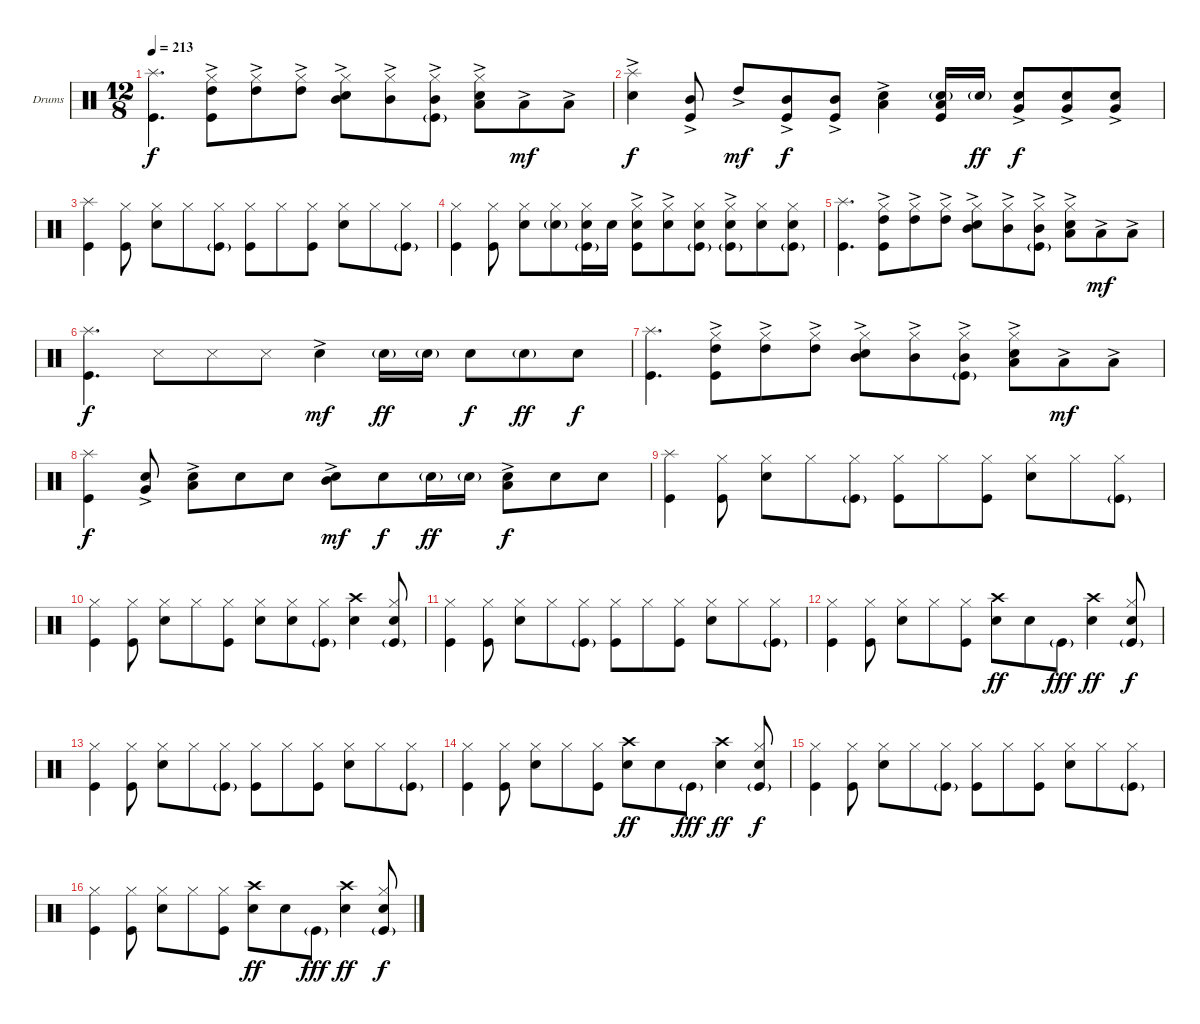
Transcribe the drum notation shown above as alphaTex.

\bracketExtendMode groupsimilarinstruments
\firstSystemTrackNameOrientation horizontal
\otherSystemsTrackNameOrientation horizontal
\track ("Drumkit" "Drums") {instrument percussion}
\staff {score}
\articulation defaults
\ts (12 8)
\tempo 213
\clef neutral
\ks c
("Kick (hit)" "Splash (hit)").4{d dy f} ("Hi-Hat (closed)" "Kick (hit)" "High Tom (hit)"{ac}).8 ("Hi-Hat (closed)" "High Tom (hit)"{ac}).8 ("Hi-Hat (closed)" "High Tom (hit)"{ac}).8 ("Hi-Hat (closed)" "Snare (hit) 2" "Mid Tom (hit)"{ac}).8 ("Hi-Hat (closed)" "Mid Tom (hit)"{ac}).8 ("Hi-Hat (closed)" "Mid Tom (hit)"{ac} "Kick (hit)"{g}).8 ("Low Tom (hit)"{ac} "Snare (hit) 2" "Hi-Hat (closed)").8 "Low Tom (hit)"{ac}.8{dy mf} "Low Tom (hit)"{ac}.8 |
("Snare (hit) 2"{ac} "Splash (hit)").4{dy f} ("Kick (hit)" "Mid Tom (hit)"{ac}).8 "High Tom (hit)"{ac}.8{dy mf} ("Mid Tom (hit)"{ac} "Kick (hit)").8{dy f} ("Mid Tom (hit)"{ac} "Kick (hit)").8 ("Low Tom (hit)" "Snare (hit) 2"{ac}).4 ("Low Tom (hit)" "Snare (hit) 2"{g} "Kick (hit)").16 "Snare (hit) 2"{g}.16{dy ff} ("Very Low Tom (hit)"{ac} "Snare (hit) 2").8{dy f} ("Very Low Tom (hit)"{ac} "Snare (hit) 2").8 ("Very Low Tom (hit)"{ac} "Snare (hit) 2").8 |
("Kick (hit)" "Splash (hit)").4 ("Kick (hit)" "Hi-Hat (closed)").8 ("Snare (hit) 2" "Hi-Hat (closed)").8 "Hi-Hat (closed)".8 ("Hi-Hat (closed)" "Kick (hit)"{g}).8 ("Kick (hit)" "Hi-Hat (closed)").8 "Hi-Hat (closed)".8 ("Hi-Hat (closed)" "Kick (hit)").8 ("Snare (hit) 2" "Hi-Hat (closed)").8 "Hi-Hat (closed)".8 ("Hi-Hat (closed)" "Kick (hit)"{g}).8 |
("Kick (hit)" "Hi-Hat (closed)").4 ("Kick (hit)" "Hi-Hat (closed)").8 ("Snare (hit) 2" "Hi-Hat (closed)").8 ("Hi-Hat (closed)" "Snare (hit) 2"{g}).8 ("Hi-Hat (closed)" "Kick (hit)"{g} "Snare (hit) 2").16 "Snare (hit) 2".16 ("Snare (hit) 2"{ac} "Kick (hit)" "Hi-Hat (closed)").8 ("Snare (hit) 2"{ac} "Hi-Hat (closed)").8 ("Snare (hit) 2" "Kick (hit)"{g} "Hi-Hat (closed)").8 ("Snare (hit) 2"{ac} "Kick (hit)"{g} "Hi-Hat (closed)").8 ("Snare (hit) 2" "Hi-Hat (closed)").8 ("Snare (hit) 2" "Kick (hit)"{g} "Hi-Hat (closed)").8 |
("Kick (hit)" "Splash (hit)").4{d} ("Hi-Hat (closed)" "Kick (hit)" "High Tom (hit)"{ac}).8 ("Hi-Hat (closed)" "High Tom (hit)"{ac}).8 ("Hi-Hat (closed)" "High Tom (hit)"{ac}).8 ("Hi-Hat (closed)" "Snare (hit) 2" "Mid Tom (hit)"{ac}).8 ("Hi-Hat (closed)" "Mid Tom (hit)"{ac}).8 ("Hi-Hat (closed)" "Mid Tom (hit)"{ac} "Kick (hit)"{g}).8 ("Low Tom (hit)"{ac} "Snare (hit) 2" "Hi-Hat (closed)").8 "Low Tom (hit)"{ac}.8{dy mf} "Low Tom (hit)"{ac}.8 |
("Kick (hit)" "Splash (hit)").4{d dy f} "Snare (side stick) 3".8 "Snare (side stick) 3".8 "Snare (side stick) 3".8 "Snare (hit) 2"{ac}.4{dy mf} "Snare (hit) 2"{g}.16{dy ff} "Snare (hit) 2"{g}.16 "Snare (hit) 2".8{dy f} "Snare (hit) 2"{g}.8{dy ff} "Snare (hit) 2".8{dy f} |
("Kick (hit)" "Splash (hit)").4{d} ("Hi-Hat (closed)" "Kick (hit)" "High Tom (hit)"{ac}).8 ("Hi-Hat (closed)" "High Tom (hit)"{ac}).8 ("Hi-Hat (closed)" "High Tom (hit)"{ac}).8 ("Hi-Hat (closed)" "Snare (hit) 2" "Mid Tom (hit)"{ac}).8 ("Hi-Hat (closed)" "Mid Tom (hit)"{ac}).8 ("Hi-Hat (closed)" "Mid Tom (hit)"{ac} "Kick (hit)"{g}).8 ("Low Tom (hit)"{ac} "Snare (hit) 2" "Hi-Hat (closed)").8 "Low Tom (hit)"{ac}.8{dy mf} "Low Tom (hit)"{ac}.8 |
("Kick (hit)" "Splash (hit)").4{dy f} ("Snare (hit) 2" "Very Low Tom (hit)"{ac}).8 ("Snare (hit) 2" "Low Tom (hit)"{ac}).8 "Snare (hit) 2".8 "Snare (hit) 2".8 ("Snare (hit) 2"{ac} "Mid Tom (hit)"{ac}).8{dy mf} "Snare (hit) 2".8{dy f} "Snare (hit) 2"{g}.16{dy ff} "Snare (hit) 2"{g}.16 ("Snare (hit) 2"{ac} "Low Tom (hit)").8{dy f} "Snare (hit) 2".8 "Snare (hit) 2".8 |
("Kick (hit)" "Splash (hit)").4 ("Kick (hit)" "Hi-Hat (closed)").8 ("Snare (hit) 2" "Hi-Hat (closed)").8 "Hi-Hat (closed)".8 ("Hi-Hat (closed)" "Kick (hit)"{g}).8 ("Kick (hit)" "Hi-Hat (closed)").8 "Hi-Hat (closed)".8 ("Hi-Hat (closed)" "Kick (hit)").8 ("Snare (hit) 2" "Hi-Hat (closed)").8 "Hi-Hat (closed)".8 ("Hi-Hat (closed)" "Kick (hit)"{g}).8 |
("Kick (hit)" "Hi-Hat (closed)").4 ("Kick (hit)" "Hi-Hat (closed)").8 ("Snare (hit) 2" "Hi-Hat (closed)").8 "Hi-Hat (closed)".8 ("Hi-Hat (closed)" "Kick (hit)").8 ("Snare (hit) 2" "Hi-Hat (closed)").8 ("Snare (hit) 2" "Hi-Hat (closed)").8 ("Kick (hit)"{g} "Hi-Hat (closed)").8 ("Snare (hit) 2" "Crash high (hit)").4 ("Snare (hit) 2" "Kick (hit)"{g} "Hi-Hat (closed)").8 |
("Kick (hit)" "Hi-Hat (closed)").4 ("Kick (hit)" "Hi-Hat (closed)").8 ("Snare (hit) 2" "Hi-Hat (closed)").8 "Hi-Hat (closed)".8 ("Hi-Hat (closed)" "Kick (hit)"{g}).8 ("Kick (hit)" "Hi-Hat (closed)").8 "Hi-Hat (closed)".8 ("Hi-Hat (closed)" "Kick (hit)").8 ("Snare (hit) 2" "Hi-Hat (closed)").8 "Hi-Hat (closed)".8 ("Hi-Hat (closed)" "Kick (hit)"{g}).8 |
("Kick (hit)" "Hi-Hat (closed)").4 ("Kick (hit)" "Hi-Hat (closed)").8 ("Snare (hit) 2" "Hi-Hat (closed)").8 "Hi-Hat (closed)".8 ("Hi-Hat (closed)" "Kick (hit)").8 ("Snare (hit) 2" "Crash high (hit)").8{dy ff} "Snare (hit) 2".8 "Kick (hit)"{g}.8{dy fff} ("Snare (hit) 2" "Crash high (hit)").4{dy ff} ("Snare (hit) 2" "Kick (hit)"{g} "Hi-Hat (closed)").8{dy f} |
("Kick (hit)" "Hi-Hat (closed)").4 ("Kick (hit)" "Hi-Hat (closed)").8 ("Snare (hit) 2" "Hi-Hat (closed)").8 "Hi-Hat (closed)".8 ("Hi-Hat (closed)" "Kick (hit)"{g}).8 ("Kick (hit)" "Hi-Hat (closed)").8 "Hi-Hat (closed)".8 ("Hi-Hat (closed)" "Kick (hit)").8 ("Snare (hit) 2" "Hi-Hat (closed)").8 "Hi-Hat (closed)".8 ("Hi-Hat (closed)" "Kick (hit)"{g}).8 |
("Kick (hit)" "Hi-Hat (closed)").4 ("Kick (hit)" "Hi-Hat (closed)").8 ("Snare (hit) 2" "Hi-Hat (closed)").8 "Hi-Hat (closed)".8 ("Hi-Hat (closed)" "Kick (hit)").8 ("Snare (hit) 2" "Crash high (hit)").8{dy ff} "Snare (hit) 2".8 "Kick (hit)"{g}.8{dy fff} ("Snare (hit) 2" "Crash high (hit)").4{dy ff} ("Snare (hit) 2" "Kick (hit)"{g} "Hi-Hat (closed)").8{dy f} |
("Kick (hit)" "Hi-Hat (closed)").4 ("Kick (hit)" "Hi-Hat (closed)").8 ("Snare (hit) 2" "Hi-Hat (closed)").8 "Hi-Hat (closed)".8 ("Hi-Hat (closed)" "Kick (hit)"{g}).8 ("Kick (hit)" "Hi-Hat (closed)").8 "Hi-Hat (closed)".8 ("Hi-Hat (closed)" "Kick (hit)").8 ("Snare (hit) 2" "Hi-Hat (closed)").8 "Hi-Hat (closed)".8 ("Hi-Hat (closed)" "Kick (hit)"{g}).8 |
("Kick (hit)" "Hi-Hat (closed)").4 ("Kick (hit)" "Hi-Hat (closed)").8 ("Snare (hit) 2" "Hi-Hat (closed)").8 "Hi-Hat (closed)".8 ("Hi-Hat (closed)" "Kick (hit)").8 ("Snare (hit) 2" "Crash high (hit)").8{dy ff} "Snare (hit) 2".8 "Kick (hit)"{g}.8{dy fff} ("Snare (hit) 2" "Crash high (hit)").4{dy ff} ("Snare (hit) 2" "Kick (hit)"{g} "Hi-Hat (closed)").8{dy f}
